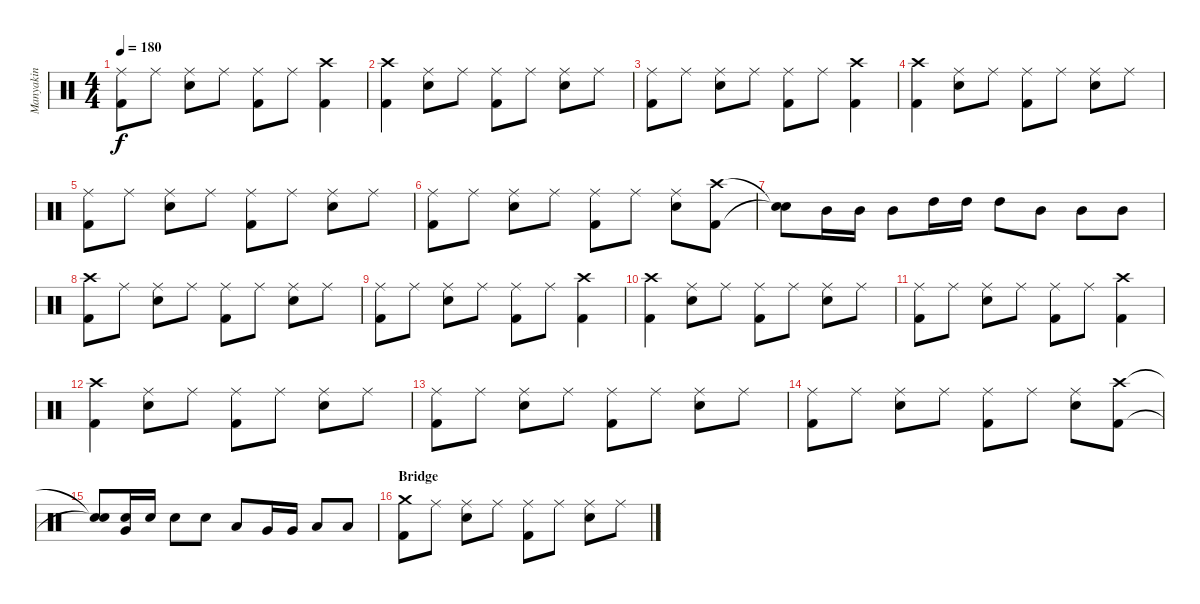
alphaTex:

\track ("Manyakin" "Manyakin") {instrument percussion}
\staff {score}
\articulation defaults
\ts (4 4)
\tempo 180
\clef neutral
\ks c
("Kick (hit) 2" "Ride (middle)").8{dy f} "Ride (middle)".8 ("Snare (hit) 2" "Ride (middle)").8 "Ride (middle)".8 ("Kick (hit) 2" "Ride (middle)").8 "Ride (middle)".8 ("Kick (hit) 2" "Crash high (hit)").4 |
("Kick (hit) 2" "Crash high (hit)").4 ("Snare (hit) 2" "Ride (middle)").8 "Ride (middle)".8 ("Kick (hit) 2" "Ride (middle)").8 "Ride (middle)".8 ("Snare (hit) 2" "Ride (middle)").8 "Ride (middle)".8 |
("Kick (hit) 2" "Ride (middle)").8 "Ride (middle)".8 ("Snare (hit) 2" "Ride (middle)").8 "Ride (middle)".8 ("Kick (hit) 2" "Ride (middle)").8 "Ride (middle)".8 ("Kick (hit) 2" "Crash high (hit)").4 |
("Kick (hit) 2" "Crash high (hit)").4 ("Snare (hit) 2" "Ride (middle)").8 "Ride (middle)".8 ("Kick (hit) 2" "Ride (middle)").8 "Ride (middle)".8 ("Snare (hit) 2" "Ride (middle)").8 "Ride (middle)".8 |
("Kick (hit) 2" "Ride (middle)").8 "Ride (middle)".8 ("Snare (hit) 2" "Ride (middle)").8 "Ride (middle)".8 ("Kick (hit) 2" "Ride (middle)").8 "Ride (middle)".8 ("Snare (hit) 2" "Ride (middle)").8 "Ride (middle)".8 |
("Kick (hit) 2" "Ride (middle)").8 "Ride (middle)".8 ("Snare (hit) 2" "Ride (middle)").8 "Ride (middle)".8 ("Kick (hit) 2" "Ride (middle)").8 "Ride (middle)".8 ("Snare (hit) 2" "Ride (middle)").8 ("Kick (hit) 2" "Crash high (hit)").8 |
("Snare (hit)"{t} "Snare (hit)"{t}).8 "Mid Tom (hit)".16 "Mid Tom (hit)".16 "Mid Tom (hit)".8 "High Tom (hit)".16 "High Tom (hit)".16 "High Tom (hit)".8 "Mid Tom (hit)".8 "Mid Tom (hit)".8 "Mid Tom (hit)".8 |
("Kick (hit) 2" "Crash high (hit)").8 "Ride (middle)".8 ("Snare (hit) 2" "Ride (middle)").8 "Ride (middle)".8 ("Kick (hit) 2" "Ride (middle)").8 "Ride (middle)".8 ("Snare (hit) 2" "Ride (middle)").8 "Ride (middle)".8 |
("Kick (hit) 2" "Ride (middle)").8 "Ride (middle)".8 ("Snare (hit) 2" "Ride (middle)").8 "Ride (middle)".8 ("Kick (hit) 2" "Ride (middle)").8 "Ride (middle)".8 ("Kick (hit) 2" "Crash high (hit)").4 |
("Kick (hit) 2" "Crash high (hit)").4 ("Snare (hit) 2" "Ride (middle)").8 "Ride (middle)".8 ("Kick (hit) 2" "Ride (middle)").8 "Ride (middle)".8 ("Snare (hit) 2" "Ride (middle)").8 "Ride (middle)".8 |
("Kick (hit) 2" "Ride (middle)").8 "Ride (middle)".8 ("Snare (hit) 2" "Ride (middle)").8 "Ride (middle)".8 ("Kick (hit) 2" "Ride (middle)").8 "Ride (middle)".8 ("Kick (hit) 2" "Crash high (hit)").4 |
("Kick (hit) 2" "Crash high (hit)").4 ("Snare (hit) 2" "Ride (middle)").8 "Ride (middle)".8 ("Kick (hit) 2" "Ride (middle)").8 "Ride (middle)".8 ("Snare (hit) 2" "Ride (middle)").8 "Ride (middle)".8 |
("Kick (hit) 2" "Ride (middle)").8 "Ride (middle)".8 ("Snare (hit) 2" "Ride (middle)").8 "Ride (middle)".8 ("Kick (hit) 2" "Ride (middle)").8 "Ride (middle)".8 ("Snare (hit) 2" "Ride (middle)").8 "Ride (middle)".8 |
("Kick (hit) 2" "Ride (middle)").8 "Ride (middle)".8 ("Snare (hit) 2" "Ride (middle)").8 "Ride (middle)".8 ("Kick (hit) 2" "Ride (middle)").8 "Ride (middle)".8 ("Snare (hit) 2" "Ride (middle)").8 ("Kick (hit) 2" "Crash high (hit)").8 |
("Snare (hit)"{t} "Snare (hit)"{t}).8 ("Very Low Tom (hit)" "Snare (hit) 2").16 "Snare (hit) 2".16 "Snare (hit) 2".8 "Snare (hit) 2".8 "Low Tom (hit)".8 "Very Low Tom (hit)".16 "Very Low Tom (hit)".16 "Low Floor Tom (hit)".8 "Low Floor Tom (hit)".8 |
\section ("" "Bridge")
("Kick (hit) 2" "Crash medium (hit)").8 "Ride (middle)".8 ("Snare (hit) 2" "Ride (middle)").8 "Ride (middle)".8 ("Kick (hit) 2" "Ride (middle)").8 "Ride (middle)".8 ("Snare (hit) 2" "Ride (middle)").8 "Ride (middle)".8
